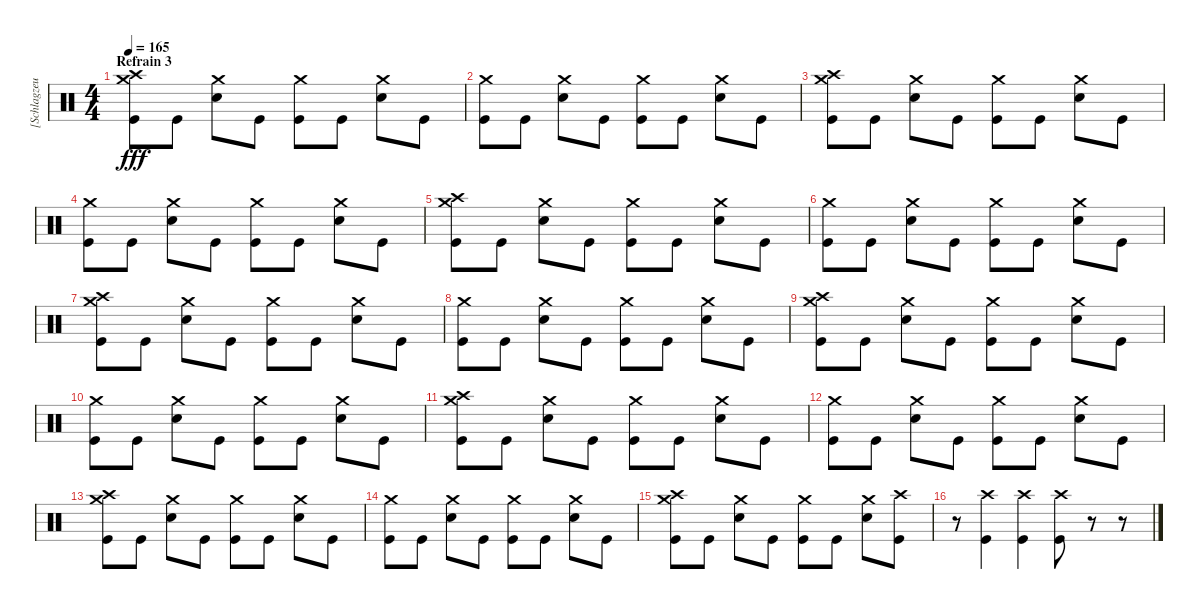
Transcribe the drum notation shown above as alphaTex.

\track ("[Schlagzeug]" "[Schlagzeu") {instrument percussion}
\staff {score}
\articulation defaults
\ts (4 4)
\section ("" "Refrain 3")
\tempo 165
\clef neutral
\ks c
("Crash high (hit)" "Crash medium (hit)" "Kick (hit)").8{dy fff} "Kick (hit)".8 ("Crash medium (hit)" "Electric Snare (hit)").8 "Kick (hit)".8 ("Crash medium (hit)" "Kick (hit)").8 "Kick (hit)".8 ("Crash medium (hit)" "Electric Snare (hit)").8 "Kick (hit)".8 |
("Crash medium (hit)" "Kick (hit)").8 "Kick (hit)".8 ("Crash medium (hit)" "Electric Snare (hit)").8 "Kick (hit)".8 ("Crash medium (hit)" "Kick (hit)").8 "Kick (hit)".8 ("Crash medium (hit)" "Electric Snare (hit)").8 "Kick (hit)".8 |
("Crash high (hit)" "Crash medium (hit)" "Kick (hit)").8 "Kick (hit)".8 ("Crash medium (hit)" "Electric Snare (hit)").8 "Kick (hit)".8 ("Crash medium (hit)" "Kick (hit)").8 "Kick (hit)".8 ("Crash medium (hit)" "Electric Snare (hit)").8 "Kick (hit)".8 |
("Crash medium (hit)" "Kick (hit)").8 "Kick (hit)".8 ("Crash medium (hit)" "Electric Snare (hit)").8 "Kick (hit)".8 ("Crash medium (hit)" "Kick (hit)").8 "Kick (hit)".8 ("Crash medium (hit)" "Electric Snare (hit)").8 "Kick (hit)".8 |
("Crash high (hit)" "Crash medium (hit)" "Kick (hit)").8 "Kick (hit)".8 ("Crash medium (hit)" "Electric Snare (hit)").8 "Kick (hit)".8 ("Crash medium (hit)" "Kick (hit)").8 "Kick (hit)".8 ("Crash medium (hit)" "Electric Snare (hit)").8 "Kick (hit)".8 |
("Crash medium (hit)" "Kick (hit)").8 "Kick (hit)".8 ("Crash medium (hit)" "Electric Snare (hit)").8 "Kick (hit)".8 ("Crash medium (hit)" "Kick (hit)").8 "Kick (hit)".8 ("Crash medium (hit)" "Electric Snare (hit)").8 "Kick (hit)".8 |
("Crash high (hit)" "Crash medium (hit)" "Kick (hit)").8 "Kick (hit)".8 ("Crash medium (hit)" "Electric Snare (hit)").8 "Kick (hit)".8 ("Crash medium (hit)" "Kick (hit)").8 "Kick (hit)".8 ("Crash medium (hit)" "Electric Snare (hit)").8 "Kick (hit)".8 |
("Crash medium (hit)" "Kick (hit)").8 "Kick (hit)".8 ("Crash medium (hit)" "Electric Snare (hit)").8 "Kick (hit)".8 ("Crash medium (hit)" "Kick (hit)").8 "Kick (hit)".8 ("Crash medium (hit)" "Electric Snare (hit)").8 "Kick (hit)".8 |
("Crash high (hit)" "Crash medium (hit)" "Kick (hit)").8 "Kick (hit)".8 ("Crash medium (hit)" "Electric Snare (hit)").8 "Kick (hit)".8 ("Crash medium (hit)" "Kick (hit)").8 "Kick (hit)".8 ("Crash medium (hit)" "Electric Snare (hit)").8 "Kick (hit)".8 |
("Crash medium (hit)" "Kick (hit)").8 "Kick (hit)".8 ("Crash medium (hit)" "Electric Snare (hit)").8 "Kick (hit)".8 ("Crash medium (hit)" "Kick (hit)").8 "Kick (hit)".8 ("Crash medium (hit)" "Electric Snare (hit)").8 "Kick (hit)".8 |
("Crash high (hit)" "Crash medium (hit)" "Kick (hit)").8 "Kick (hit)".8 ("Crash medium (hit)" "Electric Snare (hit)").8 "Kick (hit)".8 ("Crash medium (hit)" "Kick (hit)").8 "Kick (hit)".8 ("Crash medium (hit)" "Electric Snare (hit)").8 "Kick (hit)".8 |
("Crash medium (hit)" "Kick (hit)").8 "Kick (hit)".8 ("Crash medium (hit)" "Electric Snare (hit)").8 "Kick (hit)".8 ("Crash medium (hit)" "Kick (hit)").8 "Kick (hit)".8 ("Crash medium (hit)" "Electric Snare (hit)").8 "Kick (hit)".8 |
("Crash high (hit)" "Crash medium (hit)" "Kick (hit)").8 "Kick (hit)".8 ("Crash medium (hit)" "Electric Snare (hit)").8 "Kick (hit)".8 ("Crash medium (hit)" "Kick (hit)").8 "Kick (hit)".8 ("Crash medium (hit)" "Electric Snare (hit)").8 "Kick (hit)".8 |
("Crash medium (hit)" "Kick (hit)").8 "Kick (hit)".8 ("Crash medium (hit)" "Electric Snare (hit)").8 "Kick (hit)".8 ("Crash medium (hit)" "Kick (hit)").8 "Kick (hit)".8 ("Crash medium (hit)" "Electric Snare (hit)").8 "Kick (hit)".8 |
("Crash high (hit)" "Crash medium (hit)" "Kick (hit)").8 "Kick (hit)".8 ("Crash medium (hit)" "Electric Snare (hit)").8 "Kick (hit)".8 ("Crash medium (hit)" "Kick (hit)").8 "Kick (hit)".8 ("Crash medium (hit)" "Electric Snare (hit)").8 ("Crash high (hit)" "Kick (hit)").8 |
r.8 ("Crash high (hit)" "Kick (hit)").4 ("Crash high (hit)" "Kick (hit)").4 ("Crash high (hit)" "Kick (hit)").8 r.8{volume 0} r.8
